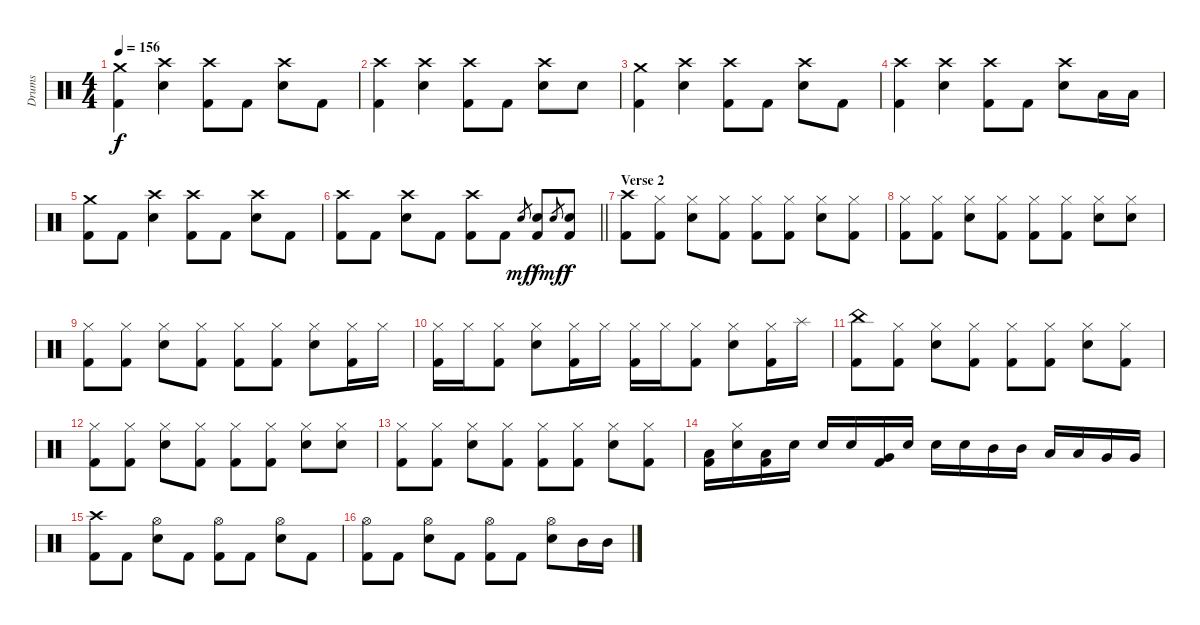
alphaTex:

\track ("Drums" "Drums") {instrument percussion}
\staff {score}
\articulation defaults
\ts (4 4)
\tempo 156
\clef neutral
\ks c
("Crash medium (hit)" "Kick (hit) 2").4{dy f} ("Crash high (hit)" "Snare (hit) 2").4 ("Crash high (hit)" "Kick (hit) 2").8 "Kick (hit) 2".8 ("Crash high (hit)" "Snare (hit) 2").8 "Kick (hit) 2".8 |
("Crash high (hit)" "Kick (hit) 2").4 ("Crash high (hit)" "Snare (hit) 2").4 ("Crash high (hit)" "Kick (hit) 2").8 "Kick (hit) 2".8 ("Crash high (hit)" "Snare (hit) 2").8 "Snare (hit) 2".8 |
("Crash medium (hit)" "Kick (hit) 2").4 ("Crash high (hit)" "Snare (hit) 2").4 ("Crash high (hit)" "Kick (hit) 2").8 "Kick (hit) 2".8 ("Crash high (hit)" "Snare (hit) 2").8 "Kick (hit) 2".8 |
("Crash high (hit)" "Kick (hit) 2").4 ("Crash high (hit)" "Snare (hit) 2").4 ("Crash high (hit)" "Kick (hit) 2").8 "Kick (hit) 2".8 ("Crash high (hit)" "Snare (hit) 2").8 "Low Tom (hit)".16 "Low Tom (hit)".16 |
("Crash medium (hit)" "Kick (hit) 2").8 "Kick (hit) 2".8 ("Crash high (hit)" "Snare (hit) 2").4 ("Crash high (hit)" "Kick (hit) 2").8 "Kick (hit) 2".8 ("Crash high (hit)" "Snare (hit) 2").8 "Kick (hit) 2".8 |
\barLineRight lightlight
("Crash high (hit)" "Kick (hit) 2").8 "Kick (hit) 2".8 ("Crash high (hit)" "Snare (hit) 2").8 "Kick (hit) 2".8 ("Crash high (hit)" "Kick (hit) 2").8 "Kick (hit) 2".8 "Snare (hit)".8{gr dy mf} ("Snare (hit) 2" "Kick (hit) 2").8{dy f} "Snare (hit)".8{gr dy mf} ("Snare (hit) 2" "Kick (hit) 2").8{dy f} |
\section ("" "Verse 2")
("Crash high (hit)" "Kick (hit) 2").8 ("Hi-Hat (closed)" "Kick (hit) 2").8 ("Hi-Hat (closed)" "Snare (hit) 2").8 ("Hi-Hat (closed)" "Kick (hit) 2").8 ("Hi-Hat (closed)" "Kick (hit) 2").8 ("Hi-Hat (closed)" "Kick (hit) 2").8 ("Hi-Hat (closed)" "Snare (hit) 2").8 ("Hi-Hat (closed)" "Kick (hit) 2").8 |
("Hi-Hat (closed)" "Kick (hit) 2").8 ("Hi-Hat (closed)" "Kick (hit) 2").8 ("Hi-Hat (closed)" "Snare (hit) 2").8 ("Hi-Hat (closed)" "Kick (hit) 2").8 ("Hi-Hat (closed)" "Kick (hit) 2").8 ("Hi-Hat (closed)" "Kick (hit) 2").8 ("Hi-Hat (closed)" "Snare (hit) 2").8 ("Hi-Hat (closed)" "Snare (hit) 2").8 |
("Hi-Hat (closed)" "Kick (hit) 2").8 ("Hi-Hat (closed)" "Kick (hit) 2").8 ("Hi-Hat (closed)" "Snare (hit) 2").8 ("Hi-Hat (closed)" "Kick (hit) 2").8 ("Hi-Hat (closed)" "Kick (hit) 2").8 ("Hi-Hat (closed)" "Kick (hit) 2").8 ("Hi-Hat (closed)" "Snare (hit) 2").8 ("Hi-Hat (closed)" "Kick (hit) 2").16 "Hi-Hat (closed)".16 |
("Hi-Hat (closed)" "Kick (hit) 2").16 "Hi-Hat (closed)".16 ("Hi-Hat (closed)" "Kick (hit) 2").8 ("Hi-Hat (closed)" "Snare (hit) 2").8 ("Hi-Hat (closed)" "Kick (hit) 2").16 "Hi-Hat (closed)".16 ("Hi-Hat (closed)" "Kick (hit) 2").16 "Hi-Hat (closed)".16 ("Hi-Hat (closed)" "Kick (hit) 2").8 ("Hi-Hat (closed)" "Snare (hit) 2").8 ("Hi-Hat (closed)" "Kick (hit) 2").16 "Splash (hit)".16 |
("China (hit)" "Kick (hit) 2").8 ("Hi-Hat (closed)" "Kick (hit) 2").8 ("Hi-Hat (closed)" "Snare (hit) 2").8 ("Hi-Hat (closed)" "Kick (hit) 2").8 ("Hi-Hat (closed)" "Kick (hit) 2").8 ("Hi-Hat (closed)" "Kick (hit) 2").8 ("Hi-Hat (closed)" "Snare (hit) 2").8 ("Hi-Hat (closed)" "Kick (hit) 2").8 |
("Hi-Hat (closed)" "Kick (hit) 2").8 ("Hi-Hat (closed)" "Kick (hit) 2").8 ("Hi-Hat (closed)" "Snare (hit) 2").8 ("Hi-Hat (closed)" "Kick (hit) 2").8 ("Hi-Hat (closed)" "Kick (hit) 2").8 ("Hi-Hat (closed)" "Kick (hit) 2").8 ("Hi-Hat (closed)" "Snare (hit) 2").8 ("Hi-Hat (closed)" "Snare (hit) 2").8 |
("Hi-Hat (closed)" "Kick (hit) 2").8 ("Hi-Hat (closed)" "Kick (hit) 2").8 ("Hi-Hat (closed)" "Snare (hit) 2").8 ("Hi-Hat (closed)" "Kick (hit) 2").8 ("Hi-Hat (closed)" "Kick (hit) 2").8 ("Hi-Hat (closed)" "Kick (hit) 2").8 ("Hi-Hat (closed)" "Snare (hit) 2").8 ("Hi-Hat (closed)" "Kick (hit) 2").8 |
("Low Tom (hit)" "Kick (hit) 2").16 ("Hi-Hat (closed)" "Snare (hit) 2").16 ("Low Tom (hit)" "Kick (hit) 2").16 "Snare (hit) 2".16 "Snare (hit) 2".16 "Snare (hit) 2".16 ("Very Low Tom (hit)" "Kick (hit) 2").16 "Snare (hit) 2".16 "Snare (hit) 2".16 "Snare (hit) 2".16 "Mid Tom (hit)".16 "Mid Tom (hit)".16 "Low Tom (hit)".16 "Low Tom (hit)".16 "Very Low Tom (hit)".16 "Very Low Tom (hit)".16 |
("Crash high (hit)" "Kick (hit) 2").8 "Kick (hit) 2".8 ("Hi-Hat (open)" "Snare (hit) 2").8 "Kick (hit) 2".8 ("Hi-Hat (open)" "Kick (hit) 2").8 "Kick (hit) 2".8 ("Hi-Hat (open)" "Snare (hit) 2").8 "Kick (hit) 2".8 |
("Hi-Hat (open)" "Kick (hit) 2").8 "Kick (hit) 2".8 ("Hi-Hat (open)" "Snare (hit) 2").8 "Kick (hit) 2".8 ("Hi-Hat (open)" "Kick (hit) 2").8 "Kick (hit) 2".8 ("Hi-Hat (open)" "Snare (hit) 2").8 "Mid Tom (hit)".16 "Mid Tom (hit)".16
